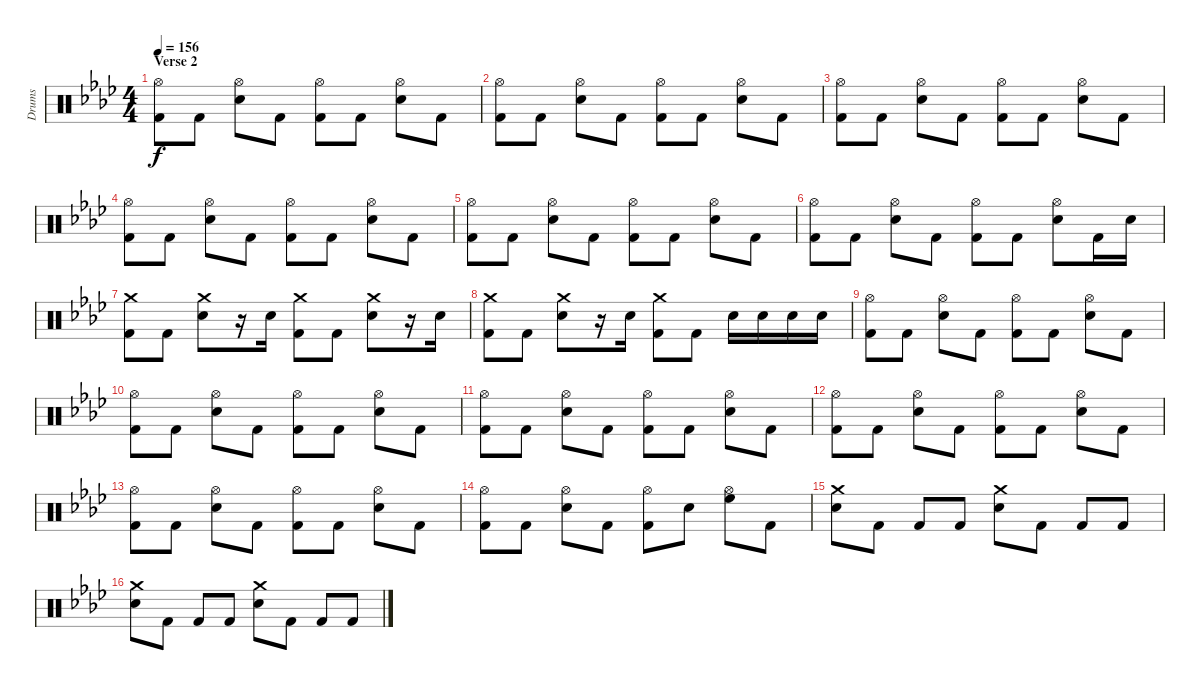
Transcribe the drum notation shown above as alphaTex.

\track ("Drums" "Drums") {instrument percussion}
\staff {score}
\articulation defaults
\ts (4 4)
\section ("" "Verse 2")
\tempo 156
\clef neutral
\ks fminor
("Kick (hit) 2" "Hi-Hat (open)").8{dy f} "Kick (hit) 2".8 ("Electric Snare (hit)" "Hi-Hat (open)").8 "Kick (hit) 2".8 ("Kick (hit) 2" "Hi-Hat (open)").8 "Kick (hit) 2".8 ("Electric Snare (hit)" "Hi-Hat (open)").8 "Kick (hit) 2".8 |
("Kick (hit) 2" "Hi-Hat (open)").8 "Kick (hit) 2".8 ("Electric Snare (hit)" "Hi-Hat (open)").8 "Kick (hit) 2".8 ("Kick (hit) 2" "Hi-Hat (open)").8 "Kick (hit) 2".8 ("Electric Snare (hit)" "Hi-Hat (open)").8 "Kick (hit) 2".8 |
("Kick (hit) 2" "Hi-Hat (open)").8 "Kick (hit) 2".8 ("Electric Snare (hit)" "Hi-Hat (open)").8 "Kick (hit) 2".8 ("Kick (hit) 2" "Hi-Hat (open)").8 "Kick (hit) 2".8 ("Electric Snare (hit)" "Hi-Hat (open)").8 "Kick (hit) 2".8 |
("Kick (hit) 2" "Hi-Hat (open)").8 "Kick (hit) 2".8 ("Electric Snare (hit)" "Hi-Hat (open)").8 "Kick (hit) 2".8 ("Kick (hit) 2" "Hi-Hat (open)").8 "Kick (hit) 2".8 ("Electric Snare (hit)" "Hi-Hat (open)").8 "Kick (hit) 2".8 |
("Kick (hit) 2" "Hi-Hat (open)").8 "Kick (hit) 2".8 ("Electric Snare (hit)" "Hi-Hat (open)").8 "Kick (hit) 2".8 ("Kick (hit) 2" "Hi-Hat (open)").8 "Kick (hit) 2".8 ("Electric Snare (hit)" "Hi-Hat (open)").8 "Kick (hit) 2".8 |
("Kick (hit) 2" "Hi-Hat (open)").8 "Kick (hit) 2".8 ("Electric Snare (hit)" "Hi-Hat (open)").8 "Kick (hit) 2".8 ("Kick (hit) 2" "Hi-Hat (open)").8 "Kick (hit) 2".8 ("Electric Snare (hit)" "Hi-Hat (open)").8 "Kick (hit) 2".16 "Electric Snare (hit)".16 |
("Kick (hit) 2" "Crash medium (hit)").8 "Kick (hit) 2".8 ("Electric Snare (hit)" "Crash medium (hit)").8 r.16 "Electric Snare (hit)".16 ("Kick (hit) 2" "Crash medium (hit)").8 "Kick (hit) 2".8 ("Electric Snare (hit)" "Crash medium (hit)").8 r.16 "Electric Snare (hit)".16 |
("Kick (hit) 2" "Crash medium (hit)").8 "Kick (hit) 2".8 ("Electric Snare (hit)" "Crash medium (hit)").8 r.16 "Electric Snare (hit)".16 ("Kick (hit) 2" "Crash medium (hit)").8 "Kick (hit) 2".8 "Electric Snare (hit)".16 "Electric Snare (hit)".16 "Electric Snare (hit)".16 "Electric Snare (hit)".16 |
("Kick (hit) 2" "Hi-Hat (open)").8 "Kick (hit) 2".8 ("Electric Snare (hit)" "Hi-Hat (open)").8 "Kick (hit) 2".8 ("Kick (hit) 2" "Hi-Hat (open)").8 "Kick (hit) 2".8 ("Electric Snare (hit)" "Hi-Hat (open)").8 "Kick (hit) 2".8 |
("Kick (hit) 2" "Hi-Hat (open)").8 "Kick (hit) 2".8 ("Electric Snare (hit)" "Hi-Hat (open)").8 "Kick (hit) 2".8 ("Kick (hit) 2" "Hi-Hat (open)").8 "Kick (hit) 2".8 ("Electric Snare (hit)" "Hi-Hat (open)").8 "Kick (hit) 2".8 |
("Kick (hit) 2" "Hi-Hat (open)").8 "Kick (hit) 2".8 ("Electric Snare (hit)" "Hi-Hat (open)").8 "Kick (hit) 2".8 ("Kick (hit) 2" "Hi-Hat (open)").8 "Kick (hit) 2".8 ("Electric Snare (hit)" "Hi-Hat (open)").8 "Kick (hit) 2".8 |
("Kick (hit) 2" "Hi-Hat (open)").8 "Kick (hit) 2".8 ("Electric Snare (hit)" "Hi-Hat (open)").8 "Kick (hit) 2".8 ("Kick (hit) 2" "Hi-Hat (open)").8 "Kick (hit) 2".8 ("Electric Snare (hit)" "Hi-Hat (open)").8 "Kick (hit) 2".8 |
("Kick (hit) 2" "Hi-Hat (open)").8 "Kick (hit) 2".8 ("Electric Snare (hit)" "Hi-Hat (open)").8 "Kick (hit) 2".8 ("Kick (hit) 2" "Hi-Hat (open)").8 "Kick (hit) 2".8 ("Electric Snare (hit)" "Hi-Hat (open)").8 "Kick (hit) 2".8 |
("Kick (hit) 2" "Hi-Hat (open)").8 "Kick (hit) 2".8 ("Hi-Hat (open)" "Electric Snare (hit)").8 "Kick (hit) 2".8 ("Kick (hit) 2" "Hi-Hat (open)").8 "Electric Snare (hit)".8 ("High Floor Tom (hit)" "Hi-Hat (open)").8 "Kick (hit) 2".8 |
("Electric Snare (hit)" "Crash medium (hit)").8 "Kick (hit) 2".8 "Kick (hit) 2".8 "Kick (hit) 2".8 ("Electric Snare (hit)" "Crash medium (hit)").8 "Kick (hit) 2".8 "Kick (hit) 2".8 "Kick (hit) 2".8 |
("Electric Snare (hit)" "Crash medium (hit)").8 "Kick (hit) 2".8 "Kick (hit) 2".8 "Kick (hit) 2".8 ("Electric Snare (hit)" "Crash medium (hit)").8 "Kick (hit) 2".8 "Kick (hit) 2".8 "Kick (hit) 2".8
